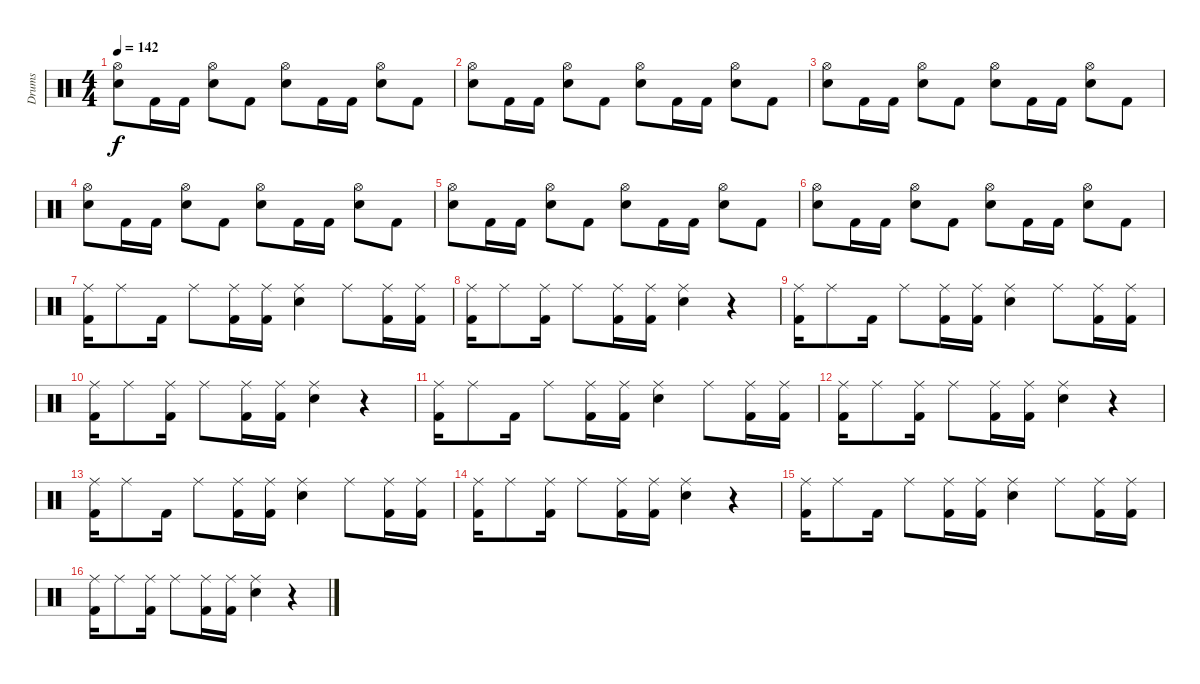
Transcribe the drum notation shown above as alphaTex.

\track ("Drums" "Drums") {instrument percussion}
\staff {score}
\articulation defaults
\ts (4 4)
\tempo 142
\clef neutral
\ks c
("Snare (hit) 2" "Hi-Hat (open)").8{dy f} "Kick (hit) 2".16 "Kick (hit) 2".16 ("Snare (hit) 2" "Hi-Hat (open)").8 "Kick (hit) 2".8 ("Snare (hit) 2" "Hi-Hat (open)").8 "Kick (hit) 2".16 "Kick (hit) 2".16 ("Snare (hit) 2" "Hi-Hat (open)").8 "Kick (hit) 2".8 |
("Snare (hit) 2" "Hi-Hat (open)").8 "Kick (hit) 2".16 "Kick (hit) 2".16 ("Snare (hit) 2" "Hi-Hat (open)").8 "Kick (hit) 2".8 ("Snare (hit) 2" "Hi-Hat (open)").8 "Kick (hit) 2".16 "Kick (hit) 2".16 ("Snare (hit) 2" "Hi-Hat (open)").8 "Kick (hit) 2".8 |
("Snare (hit) 2" "Hi-Hat (open)").8 "Kick (hit) 2".16 "Kick (hit) 2".16 ("Snare (hit) 2" "Hi-Hat (open)").8 "Kick (hit) 2".8 ("Snare (hit) 2" "Hi-Hat (open)").8 "Kick (hit) 2".16 "Kick (hit) 2".16 ("Snare (hit) 2" "Hi-Hat (open)").8 "Kick (hit) 2".8 |
("Snare (hit) 2" "Hi-Hat (open)").8 "Kick (hit) 2".16 "Kick (hit) 2".16 ("Snare (hit) 2" "Hi-Hat (open)").8 "Kick (hit) 2".8 ("Snare (hit) 2" "Hi-Hat (open)").8 "Kick (hit) 2".16 "Kick (hit) 2".16 ("Snare (hit) 2" "Hi-Hat (open)").8 "Kick (hit) 2".8 |
("Snare (hit) 2" "Hi-Hat (open)").8 "Kick (hit) 2".16 "Kick (hit) 2".16 ("Snare (hit) 2" "Hi-Hat (open)").8 "Kick (hit) 2".8 ("Snare (hit) 2" "Hi-Hat (open)").8 "Kick (hit) 2".16 "Kick (hit) 2".16 ("Snare (hit) 2" "Hi-Hat (open)").8 "Kick (hit) 2".8 |
("Snare (hit) 2" "Hi-Hat (open)").8 "Kick (hit) 2".16 "Kick (hit) 2".16 ("Snare (hit) 2" "Hi-Hat (open)").8 "Kick (hit) 2".8 ("Snare (hit) 2" "Hi-Hat (open)").8 "Kick (hit) 2".16 "Kick (hit) 2".16 ("Snare (hit) 2" "Hi-Hat (open)").8 "Kick (hit) 2".8 |
("Kick (hit) 2" "Ride (middle)").16 "Ride (middle)".8 "Kick (hit) 2".16 "Ride (middle)".8 ("Kick (hit) 2" "Ride (middle)").16 ("Kick (hit) 2" "Ride (middle)").16 ("Snare (hit) 2" "Ride (middle)").4 "Ride (middle)".8 ("Kick (hit) 2" "Ride (middle)").16 ("Kick (hit) 2" "Ride (middle)").16 |
("Kick (hit) 2" "Ride (middle)").16 "Ride (middle)".8 ("Kick (hit) 2" "Ride (middle)").16 "Ride (middle)".8 ("Kick (hit) 2" "Ride (middle)").16 ("Kick (hit) 2" "Ride (middle)").16 ("Snare (hit) 2" "Ride (middle)").4 r.4 |
("Kick (hit) 2" "Ride (middle)").16 "Ride (middle)".8 "Kick (hit) 2".16 "Ride (middle)".8 ("Kick (hit) 2" "Ride (middle)").16 ("Kick (hit) 2" "Ride (middle)").16 ("Snare (hit) 2" "Ride (middle)").4 "Ride (middle)".8 ("Kick (hit) 2" "Ride (middle)").16 ("Kick (hit) 2" "Ride (middle)").16 |
("Kick (hit) 2" "Ride (middle)").16 "Ride (middle)".8 ("Kick (hit) 2" "Ride (middle)").16 "Ride (middle)".8 ("Kick (hit) 2" "Ride (middle)").16 ("Kick (hit) 2" "Ride (middle)").16 ("Snare (hit) 2" "Ride (middle)").4 r.4 |
("Kick (hit) 2" "Ride (middle)").16 "Ride (middle)".8 "Kick (hit) 2".16 "Ride (middle)".8 ("Kick (hit) 2" "Ride (middle)").16 ("Kick (hit) 2" "Ride (middle)").16 ("Snare (hit) 2" "Ride (middle)").4 "Ride (middle)".8 ("Kick (hit) 2" "Ride (middle)").16 ("Kick (hit) 2" "Ride (middle)").16 |
("Kick (hit) 2" "Ride (middle)").16 "Ride (middle)".8 ("Kick (hit) 2" "Ride (middle)").16 "Ride (middle)".8 ("Kick (hit) 2" "Ride (middle)").16 ("Kick (hit) 2" "Ride (middle)").16 ("Snare (hit) 2" "Ride (middle)").4 r.4 |
("Kick (hit) 2" "Ride (middle)").16 "Ride (middle)".8 "Kick (hit) 2".16 "Ride (middle)".8 ("Kick (hit) 2" "Ride (middle)").16 ("Kick (hit) 2" "Ride (middle)").16 ("Snare (hit) 2" "Ride (middle)").4 "Ride (middle)".8 ("Kick (hit) 2" "Ride (middle)").16 ("Kick (hit) 2" "Ride (middle)").16 |
("Kick (hit) 2" "Ride (middle)").16 "Ride (middle)".8 ("Kick (hit) 2" "Ride (middle)").16 "Ride (middle)".8 ("Kick (hit) 2" "Ride (middle)").16 ("Kick (hit) 2" "Ride (middle)").16 ("Snare (hit) 2" "Ride (middle)").4 r.4 |
("Kick (hit) 2" "Ride (middle)").16 "Ride (middle)".8 "Kick (hit) 2".16 "Ride (middle)".8 ("Kick (hit) 2" "Ride (middle)").16 ("Kick (hit) 2" "Ride (middle)").16 ("Snare (hit) 2" "Ride (middle)").4 "Ride (middle)".8 ("Kick (hit) 2" "Ride (middle)").16 ("Kick (hit) 2" "Ride (middle)").16 |
("Kick (hit) 2" "Ride (middle)").16 "Ride (middle)".8 ("Kick (hit) 2" "Ride (middle)").16 "Ride (middle)".8 ("Kick (hit) 2" "Ride (middle)").16 ("Kick (hit) 2" "Ride (middle)").16 ("Snare (hit) 2" "Ride (middle)").4 r.4
